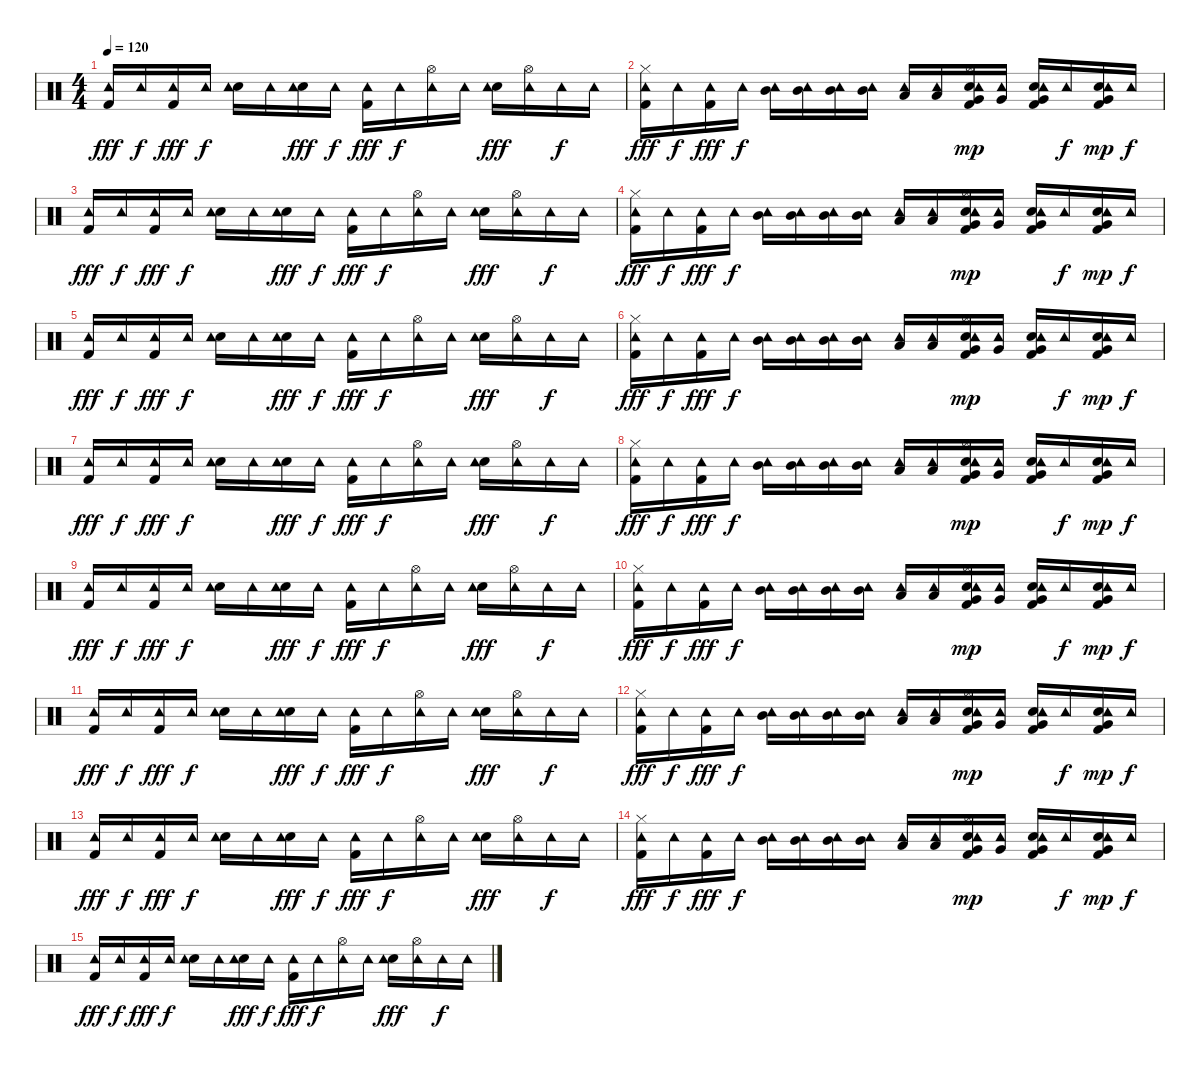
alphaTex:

\track "" {instrument percussion}
\staff {score}
\articulation defaults
\ts (4 4)
\tempo 120
\clef neutral
\ks c
("Tambourine (hit)" "Kick (hit) 2").16{dy fff} "Tambourine (hit)".16{dy f} ("Tambourine (hit)" "Kick (hit) 2").16{dy fff} "Tambourine (hit)".16{dy f} ("Hand Clap (hit)" "Tambourine (hit)").16 "Tambourine (hit)".16 ("Hand Clap (hit)" "Tambourine (hit)").16{dy fff} "Tambourine (hit)".16{dy f} ("Tambourine (hit)" "Kick (hit) 2").16{dy fff} "Tambourine (hit)".16{dy f} ("Hi-Hat (open)" "Tambourine (hit)").16 "Tambourine (hit)".16 ("Snare (hit) 2" "Tambourine (hit)").16{dy fff} ("Hi-Hat (open)" "Tambourine (hit)").16 "Tambourine (hit)".16{dy f} "Tambourine (hit)".16 |
("Hi-Hat (closed)" "Tambourine (hit)" "Kick (hit) 2").16{dy fff} "Tambourine (hit)".16{dy f} ("Tambourine (hit)" "Kick (hit) 2").16{dy fff} "Tambourine (hit)".16{dy f} ("Mid Tom (hit)" "Tambourine (hit)").16 ("Mid Tom (hit)" "Tambourine (hit)").16 ("Mid Tom (hit)" "Tambourine (hit)").16 ("Mid Tom (hit)" "Tambourine (hit)").16 ("Low Tom (hit)" "Tambourine (hit)").16 ("Low Tom (hit)" "Tambourine (hit)").16 ("Hi-Hat (open)" "Hand Clap (hit)" "Kick (hit) 2" "Very Low Tom (hit)" "Tambourine (hit)").16{dy mp} ("Very Low Tom (hit)" "Tambourine (hit)").16 ("Kick (hit) 2" "Very Low Tom (hit)" "Hand Clap (hit)" "Tambourine (hit)").16 "Tambourine (hit)".16{dy f} ("Kick (hit) 2" "Very Low Tom (hit)" "Hand Clap (hit)" "Tambourine (hit)").16{dy mp} "Tambourine (hit)".16{dy f} |
("Tambourine (hit)" "Kick (hit) 2").16{dy fff} "Tambourine (hit)".16{dy f} ("Tambourine (hit)" "Kick (hit) 2").16{dy fff} "Tambourine (hit)".16{dy f} ("Hand Clap (hit)" "Tambourine (hit)").16 "Tambourine (hit)".16 ("Hand Clap (hit)" "Tambourine (hit)").16{dy fff} "Tambourine (hit)".16{dy f} ("Tambourine (hit)" "Kick (hit) 2").16{dy fff} "Tambourine (hit)".16{dy f} ("Hi-Hat (open)" "Tambourine (hit)").16 "Tambourine (hit)".16 ("Snare (hit) 2" "Tambourine (hit)").16{dy fff} ("Hi-Hat (open)" "Tambourine (hit)").16 "Tambourine (hit)".16{dy f} "Tambourine (hit)".16 |
("Hi-Hat (closed)" "Tambourine (hit)" "Kick (hit) 2").16{dy fff} "Tambourine (hit)".16{dy f} ("Tambourine (hit)" "Kick (hit) 2").16{dy fff} "Tambourine (hit)".16{dy f} ("Mid Tom (hit)" "Tambourine (hit)").16 ("Mid Tom (hit)" "Tambourine (hit)").16 ("Mid Tom (hit)" "Tambourine (hit)").16 ("Mid Tom (hit)" "Tambourine (hit)").16 ("Low Tom (hit)" "Tambourine (hit)").16 ("Low Tom (hit)" "Tambourine (hit)").16 ("Hi-Hat (open)" "Hand Clap (hit)" "Kick (hit) 2" "Very Low Tom (hit)" "Tambourine (hit)").16{dy mp} ("Very Low Tom (hit)" "Tambourine (hit)").16 ("Kick (hit) 2" "Very Low Tom (hit)" "Hand Clap (hit)" "Tambourine (hit)").16 "Tambourine (hit)".16{dy f} ("Kick (hit) 2" "Very Low Tom (hit)" "Hand Clap (hit)" "Tambourine (hit)").16{dy mp} "Tambourine (hit)".16{dy f} |
("Tambourine (hit)" "Kick (hit) 2").16{dy fff} "Tambourine (hit)".16{dy f} ("Tambourine (hit)" "Kick (hit) 2").16{dy fff} "Tambourine (hit)".16{dy f} ("Hand Clap (hit)" "Tambourine (hit)").16 "Tambourine (hit)".16 ("Hand Clap (hit)" "Tambourine (hit)").16{dy fff} "Tambourine (hit)".16{dy f} ("Tambourine (hit)" "Kick (hit) 2").16{dy fff} "Tambourine (hit)".16{dy f} ("Hi-Hat (open)" "Tambourine (hit)").16 "Tambourine (hit)".16 ("Snare (hit) 2" "Tambourine (hit)").16{dy fff} ("Hi-Hat (open)" "Tambourine (hit)").16 "Tambourine (hit)".16{dy f} "Tambourine (hit)".16 |
("Hi-Hat (closed)" "Tambourine (hit)" "Kick (hit) 2").16{dy fff} "Tambourine (hit)".16{dy f} ("Tambourine (hit)" "Kick (hit) 2").16{dy fff} "Tambourine (hit)".16{dy f} ("Mid Tom (hit)" "Tambourine (hit)").16 ("Mid Tom (hit)" "Tambourine (hit)").16 ("Mid Tom (hit)" "Tambourine (hit)").16 ("Mid Tom (hit)" "Tambourine (hit)").16 ("Low Tom (hit)" "Tambourine (hit)").16 ("Low Tom (hit)" "Tambourine (hit)").16 ("Hi-Hat (open)" "Hand Clap (hit)" "Kick (hit) 2" "Very Low Tom (hit)" "Tambourine (hit)").16{dy mp} ("Very Low Tom (hit)" "Tambourine (hit)").16 ("Kick (hit) 2" "Very Low Tom (hit)" "Hand Clap (hit)" "Tambourine (hit)").16 "Tambourine (hit)".16{dy f} ("Kick (hit) 2" "Very Low Tom (hit)" "Hand Clap (hit)" "Tambourine (hit)").16{dy mp} "Tambourine (hit)".16{dy f} |
("Tambourine (hit)" "Kick (hit) 2").16{dy fff} "Tambourine (hit)".16{dy f} ("Tambourine (hit)" "Kick (hit) 2").16{dy fff} "Tambourine (hit)".16{dy f} ("Hand Clap (hit)" "Tambourine (hit)").16 "Tambourine (hit)".16 ("Hand Clap (hit)" "Tambourine (hit)").16{dy fff} "Tambourine (hit)".16{dy f} ("Tambourine (hit)" "Kick (hit) 2").16{dy fff} "Tambourine (hit)".16{dy f} ("Hi-Hat (open)" "Tambourine (hit)").16 "Tambourine (hit)".16 ("Snare (hit) 2" "Tambourine (hit)").16{dy fff} ("Hi-Hat (open)" "Tambourine (hit)").16 "Tambourine (hit)".16{dy f} "Tambourine (hit)".16 |
("Hi-Hat (closed)" "Tambourine (hit)" "Kick (hit) 2").16{dy fff} "Tambourine (hit)".16{dy f} ("Tambourine (hit)" "Kick (hit) 2").16{dy fff} "Tambourine (hit)".16{dy f} ("Mid Tom (hit)" "Tambourine (hit)").16 ("Mid Tom (hit)" "Tambourine (hit)").16 ("Mid Tom (hit)" "Tambourine (hit)").16 ("Mid Tom (hit)" "Tambourine (hit)").16 ("Low Tom (hit)" "Tambourine (hit)").16 ("Low Tom (hit)" "Tambourine (hit)").16 ("Hi-Hat (open)" "Hand Clap (hit)" "Kick (hit) 2" "Very Low Tom (hit)" "Tambourine (hit)").16{dy mp} ("Very Low Tom (hit)" "Tambourine (hit)").16 ("Kick (hit) 2" "Very Low Tom (hit)" "Hand Clap (hit)" "Tambourine (hit)").16 "Tambourine (hit)".16{dy f} ("Kick (hit) 2" "Very Low Tom (hit)" "Hand Clap (hit)" "Tambourine (hit)").16{dy mp} "Tambourine (hit)".16{dy f} |
("Tambourine (hit)" "Kick (hit) 2").16{dy fff} "Tambourine (hit)".16{dy f} ("Tambourine (hit)" "Kick (hit) 2").16{dy fff} "Tambourine (hit)".16{dy f} ("Hand Clap (hit)" "Tambourine (hit)").16 "Tambourine (hit)".16 ("Hand Clap (hit)" "Tambourine (hit)").16{dy fff} "Tambourine (hit)".16{dy f} ("Tambourine (hit)" "Kick (hit) 2").16{dy fff} "Tambourine (hit)".16{dy f} ("Hi-Hat (open)" "Tambourine (hit)").16 "Tambourine (hit)".16 ("Snare (hit) 2" "Tambourine (hit)").16{dy fff} ("Hi-Hat (open)" "Tambourine (hit)").16 "Tambourine (hit)".16{dy f} "Tambourine (hit)".16 |
("Hi-Hat (closed)" "Tambourine (hit)" "Kick (hit) 2").16{dy fff volume 16 balance 8} "Tambourine (hit)".16{dy f} ("Tambourine (hit)" "Kick (hit) 2").16{dy fff} "Tambourine (hit)".16{dy f} ("Mid Tom (hit)" "Tambourine (hit)").16 ("Mid Tom (hit)" "Tambourine (hit)").16 ("Mid Tom (hit)" "Tambourine (hit)").16 ("Mid Tom (hit)" "Tambourine (hit)").16 ("Low Tom (hit)" "Tambourine (hit)").16 ("Low Tom (hit)" "Tambourine (hit)").16 ("Hi-Hat (open)" "Hand Clap (hit)" "Kick (hit) 2" "Very Low Tom (hit)" "Tambourine (hit)").16{dy mp} ("Very Low Tom (hit)" "Tambourine (hit)").16 ("Kick (hit) 2" "Very Low Tom (hit)" "Hand Clap (hit)" "Tambourine (hit)").16 "Tambourine (hit)".16{dy f} ("Kick (hit) 2" "Very Low Tom (hit)" "Hand Clap (hit)" "Tambourine (hit)").16{dy mp} "Tambourine (hit)".16{dy f} |
("Tambourine (hit)" "Kick (hit) 2").16{dy fff} "Tambourine (hit)".16{dy f} ("Tambourine (hit)" "Kick (hit) 2").16{dy fff} "Tambourine (hit)".16{dy f} ("Hand Clap (hit)" "Tambourine (hit)").16 "Tambourine (hit)".16 ("Hand Clap (hit)" "Tambourine (hit)").16{dy fff} "Tambourine (hit)".16{dy f} ("Tambourine (hit)" "Kick (hit) 2").16{dy fff} "Tambourine (hit)".16{dy f} ("Hi-Hat (open)" "Tambourine (hit)").16 "Tambourine (hit)".16 ("Snare (hit) 2" "Tambourine (hit)").16{dy fff} ("Hi-Hat (open)" "Tambourine (hit)").16 "Tambourine (hit)".16{dy f} "Tambourine (hit)".16 |
("Hi-Hat (closed)" "Tambourine (hit)" "Kick (hit) 2").16{dy fff} "Tambourine (hit)".16{dy f} ("Tambourine (hit)" "Kick (hit) 2").16{dy fff} "Tambourine (hit)".16{dy f} ("Mid Tom (hit)" "Tambourine (hit)").16 ("Mid Tom (hit)" "Tambourine (hit)").16 ("Mid Tom (hit)" "Tambourine (hit)").16 ("Mid Tom (hit)" "Tambourine (hit)").16 ("Low Tom (hit)" "Tambourine (hit)").16 ("Low Tom (hit)" "Tambourine (hit)").16 ("Hi-Hat (open)" "Hand Clap (hit)" "Kick (hit) 2" "Very Low Tom (hit)" "Tambourine (hit)").16{dy mp} ("Very Low Tom (hit)" "Tambourine (hit)").16 ("Kick (hit) 2" "Very Low Tom (hit)" "Hand Clap (hit)" "Tambourine (hit)").16 "Tambourine (hit)".16{dy f} ("Kick (hit) 2" "Very Low Tom (hit)" "Hand Clap (hit)" "Tambourine (hit)").16{dy mp} "Tambourine (hit)".16{dy f} |
("Tambourine (hit)" "Kick (hit) 2").16{dy fff} "Tambourine (hit)".16{dy f} ("Tambourine (hit)" "Kick (hit) 2").16{dy fff} "Tambourine (hit)".16{dy f} ("Hand Clap (hit)" "Tambourine (hit)").16 "Tambourine (hit)".16 ("Hand Clap (hit)" "Tambourine (hit)").16{dy fff} "Tambourine (hit)".16{dy f} ("Tambourine (hit)" "Kick (hit) 2").16{dy fff} "Tambourine (hit)".16{dy f} ("Hi-Hat (open)" "Tambourine (hit)").16 "Tambourine (hit)".16 ("Snare (hit) 2" "Tambourine (hit)").16{dy fff} ("Hi-Hat (open)" "Tambourine (hit)").16 "Tambourine (hit)".16{dy f} "Tambourine (hit)".16 |
("Hi-Hat (closed)" "Tambourine (hit)" "Kick (hit) 2").16{dy fff} "Tambourine (hit)".16{dy f} ("Tambourine (hit)" "Kick (hit) 2").16{dy fff} "Tambourine (hit)".16{dy f} ("Mid Tom (hit)" "Tambourine (hit)").16 ("Mid Tom (hit)" "Tambourine (hit)").16 ("Mid Tom (hit)" "Tambourine (hit)").16 ("Mid Tom (hit)" "Tambourine (hit)").16 ("Low Tom (hit)" "Tambourine (hit)").16 ("Low Tom (hit)" "Tambourine (hit)").16 ("Hi-Hat (open)" "Hand Clap (hit)" "Kick (hit) 2" "Very Low Tom (hit)" "Tambourine (hit)").16{dy mp} ("Very Low Tom (hit)" "Tambourine (hit)").16 ("Kick (hit) 2" "Very Low Tom (hit)" "Hand Clap (hit)" "Tambourine (hit)").16 "Tambourine (hit)".16{dy f} ("Kick (hit) 2" "Very Low Tom (hit)" "Hand Clap (hit)" "Tambourine (hit)").16{dy mp} "Tambourine (hit)".16{dy f} |
("Tambourine (hit)" "Kick (hit) 2").16{dy fff} "Tambourine (hit)".16{dy f} ("Tambourine (hit)" "Kick (hit) 2").16{dy fff} "Tambourine (hit)".16{dy f} ("Hand Clap (hit)" "Tambourine (hit)").16 "Tambourine (hit)".16 ("Hand Clap (hit)" "Tambourine (hit)").16{dy fff} "Tambourine (hit)".16{dy f} ("Tambourine (hit)" "Kick (hit) 2").16{dy fff} "Tambourine (hit)".16{dy f} ("Hi-Hat (open)" "Tambourine (hit)").16 "Tambourine (hit)".16 ("Snare (hit) 2" "Tambourine (hit)").16{dy fff} ("Hi-Hat (open)" "Tambourine (hit)").16 "Tambourine (hit)".16{dy f} "Tambourine (hit)".16
